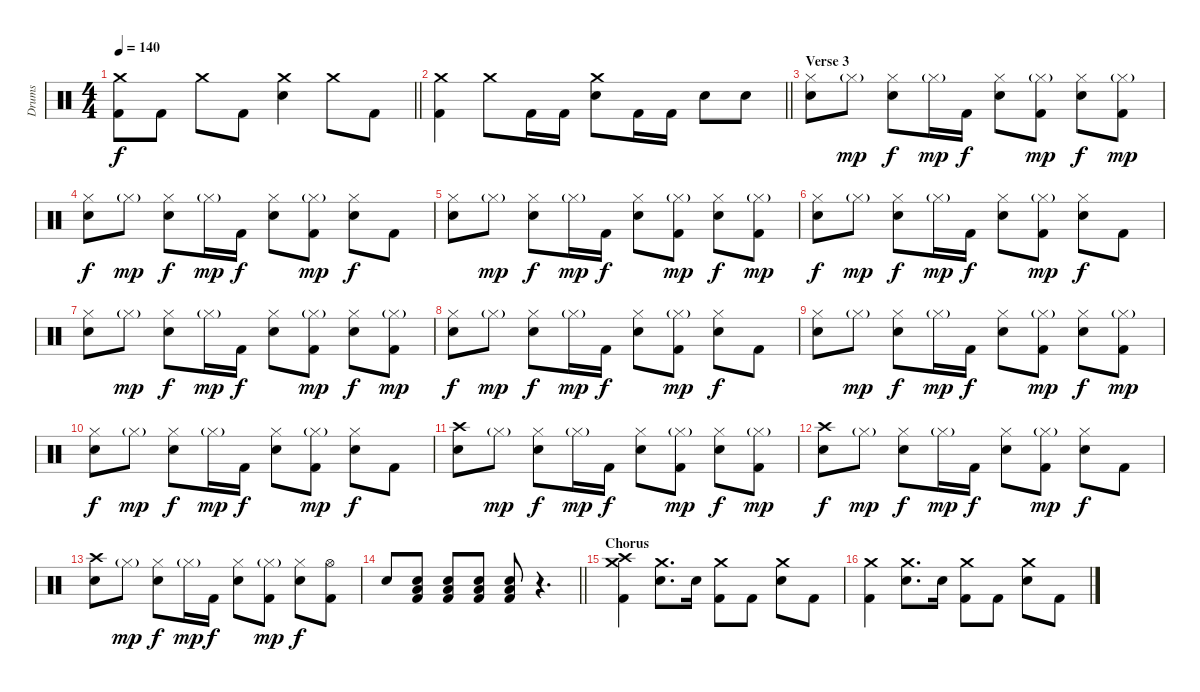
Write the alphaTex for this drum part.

\track ("Drums" "Drums") {instrument percussion}
\staff {score}
\articulation defaults
\ts (4 4)
\tempo 140
\clef neutral
\barLineRight lightlight
\ks c
("Crash medium (hit)" "Kick (hit) 2").8{dy f} "Kick (hit) 2".8 "Crash medium (hit)".8 "Kick (hit) 2".8 ("Crash medium (hit)" "Electric Snare (hit)").4 "Crash medium (hit)".8 "Kick (hit) 2".8 |
\barLineRight lightlight
("Crash medium (hit)" "Kick (hit) 2").4 "Crash medium (hit)".8 "Kick (hit) 2".16 "Kick (hit) 2".16 ("Crash medium (hit)" "Electric Snare (hit)").8 "Kick (hit) 2".16 "Kick (hit) 2".16 "Electric Snare (hit)".8 "Electric Snare (hit)".8 |
\section ("" "Verse 3")
("Hi-Hat (closed)" "Electric Snare (hit)").8 "Hi-Hat (closed)"{g}.8{dy mp} ("Hi-Hat (closed)" "Electric Snare (hit)").8{dy f} "Hi-Hat (closed)"{g}.16{dy mp} "Kick (hit) 2".16{dy f} ("Hi-Hat (closed)" "Electric Snare (hit)").8 ("Hi-Hat (closed)"{g} "Kick (hit) 2").8{dy mp} ("Hi-Hat (closed)" "Electric Snare (hit)").8{dy f} ("Hi-Hat (closed)"{g} "Kick (hit) 2").8{dy mp} |
("Hi-Hat (closed)" "Electric Snare (hit)").8{dy f} "Hi-Hat (closed)"{g}.8{dy mp} ("Hi-Hat (closed)" "Electric Snare (hit)").8{dy f} "Hi-Hat (closed)"{g}.16{dy mp} "Kick (hit) 2".16{dy f} ("Hi-Hat (closed)" "Electric Snare (hit)").8 ("Hi-Hat (closed)"{g} "Kick (hit) 2").8{dy mp} ("Hi-Hat (closed)" "Electric Snare (hit)").8{dy f} "Kick (hit) 2".8 |
("Hi-Hat (closed)" "Electric Snare (hit)").8 "Hi-Hat (closed)"{g}.8{dy mp} ("Hi-Hat (closed)" "Electric Snare (hit)").8{dy f} "Hi-Hat (closed)"{g}.16{dy mp} "Kick (hit) 2".16{dy f} ("Hi-Hat (closed)" "Electric Snare (hit)").8 ("Hi-Hat (closed)"{g} "Kick (hit) 2").8{dy mp} ("Hi-Hat (closed)" "Electric Snare (hit)").8{dy f} ("Hi-Hat (closed)"{g} "Kick (hit) 2").8{dy mp} |
("Hi-Hat (closed)" "Electric Snare (hit)").8{dy f} "Hi-Hat (closed)"{g}.8{dy mp} ("Hi-Hat (closed)" "Electric Snare (hit)").8{dy f} "Hi-Hat (closed)"{g}.16{dy mp} "Kick (hit) 2".16{dy f} ("Hi-Hat (closed)" "Electric Snare (hit)").8 ("Hi-Hat (closed)"{g} "Kick (hit) 2").8{dy mp} ("Hi-Hat (closed)" "Electric Snare (hit)").8{dy f} "Kick (hit) 2".8 |
("Hi-Hat (closed)" "Electric Snare (hit)").8 "Hi-Hat (closed)"{g}.8{dy mp} ("Hi-Hat (closed)" "Electric Snare (hit)").8{dy f} "Hi-Hat (closed)"{g}.16{dy mp} "Kick (hit) 2".16{dy f} ("Hi-Hat (closed)" "Electric Snare (hit)").8 ("Hi-Hat (closed)"{g} "Kick (hit) 2").8{dy mp} ("Hi-Hat (closed)" "Electric Snare (hit)").8{dy f} ("Hi-Hat (closed)"{g} "Kick (hit) 2").8{dy mp} |
("Hi-Hat (closed)" "Electric Snare (hit)").8{dy f} "Hi-Hat (closed)"{g}.8{dy mp} ("Hi-Hat (closed)" "Electric Snare (hit)").8{dy f} "Hi-Hat (closed)"{g}.16{dy mp} "Kick (hit) 2".16{dy f} ("Hi-Hat (closed)" "Electric Snare (hit)").8 ("Hi-Hat (closed)"{g} "Kick (hit) 2").8{dy mp} ("Hi-Hat (closed)" "Electric Snare (hit)").8{dy f} "Kick (hit) 2".8 |
("Hi-Hat (closed)" "Electric Snare (hit)").8 "Hi-Hat (closed)"{g}.8{dy mp} ("Hi-Hat (closed)" "Electric Snare (hit)").8{dy f} "Hi-Hat (closed)"{g}.16{dy mp} "Kick (hit) 2".16{dy f} ("Hi-Hat (closed)" "Electric Snare (hit)").8 ("Hi-Hat (closed)"{g} "Kick (hit) 2").8{dy mp} ("Hi-Hat (closed)" "Electric Snare (hit)").8{dy f} ("Hi-Hat (closed)"{g} "Kick (hit) 2").8{dy mp} |
("Hi-Hat (closed)" "Electric Snare (hit)").8{dy f} "Hi-Hat (closed)"{g}.8{dy mp} ("Hi-Hat (closed)" "Electric Snare (hit)").8{dy f} "Hi-Hat (closed)"{g}.16{dy mp} "Kick (hit) 2".16{dy f} ("Hi-Hat (closed)" "Electric Snare (hit)").8 ("Hi-Hat (closed)"{g} "Kick (hit) 2").8{dy mp} ("Hi-Hat (closed)" "Electric Snare (hit)").8{dy f} "Kick (hit) 2".8 |
("Crash high (hit)" "Electric Snare (hit)").8 "Hi-Hat (closed)"{g}.8{dy mp} ("Hi-Hat (closed)" "Electric Snare (hit)").8{dy f} "Hi-Hat (closed)"{g}.16{dy mp} "Kick (hit) 2".16{dy f} ("Hi-Hat (closed)" "Electric Snare (hit)").8 ("Hi-Hat (closed)"{g} "Kick (hit) 2").8{dy mp} ("Hi-Hat (closed)" "Electric Snare (hit)").8{dy f} ("Hi-Hat (closed)"{g} "Kick (hit) 2").8{dy mp} |
("Crash high (hit)" "Electric Snare (hit)").8{dy f} "Hi-Hat (closed)"{g}.8{dy mp} ("Hi-Hat (closed)" "Electric Snare (hit)").8{dy f} "Hi-Hat (closed)"{g}.16{dy mp} "Kick (hit) 2".16{dy f} ("Hi-Hat (closed)" "Electric Snare (hit)").8 ("Hi-Hat (closed)"{g} "Kick (hit) 2").8{dy mp} ("Hi-Hat (closed)" "Electric Snare (hit)").8{dy f} "Kick (hit) 2".8 |
("Crash high (hit)" "Electric Snare (hit)").8 "Hi-Hat (closed)"{g}.8{dy mp} ("Hi-Hat (closed)" "Electric Snare (hit)").8{dy f} "Hi-Hat (closed)"{g}.16{dy mp} "Kick (hit) 2".16{dy f} ("Hi-Hat (closed)" "Electric Snare (hit)").8 ("Hi-Hat (closed)"{g} "Kick (hit) 2").8{dy mp} ("Hi-Hat (closed)" "Electric Snare (hit)").8{dy f} ("Hi-Hat (open)" "Kick (hit) 2").8 |
\barLineRight lightlight "Electric Snare (hit)".8
("Electric Snare (hit)" "Low Floor Tom (hit)" "Kick (hit) 2").8 ("Electric Snare (hit)" "Low Floor Tom (hit)" "Kick (hit) 2").8 ("Electric Snare (hit)" "Low Floor Tom (hit)" "Kick (hit) 2").8 ("Electric Snare (hit)" "Low Floor Tom (hit)" "Kick (hit) 2").8 r.4{d} |
\section ("" "Chorus")
("Crash high (hit)" "Crash medium (hit)" "Kick (hit) 2").4 ("Crash medium (hit)" "Electric Snare (hit)").8{d} "Electric Snare (hit)".16 ("Crash medium (hit)" "Kick (hit) 2").8 "Kick (hit) 2".8 ("Crash medium (hit)" "Electric Snare (hit)").8 "Kick (hit) 2".8 |
("Crash medium (hit)" "Kick (hit) 2").4 ("Crash medium (hit)" "Electric Snare (hit)").8{d} "Electric Snare (hit)".16 ("Crash medium (hit)" "Kick (hit) 2").8 "Kick (hit) 2".8 ("Crash medium (hit)" "Electric Snare (hit)").8 "Kick (hit) 2".8
